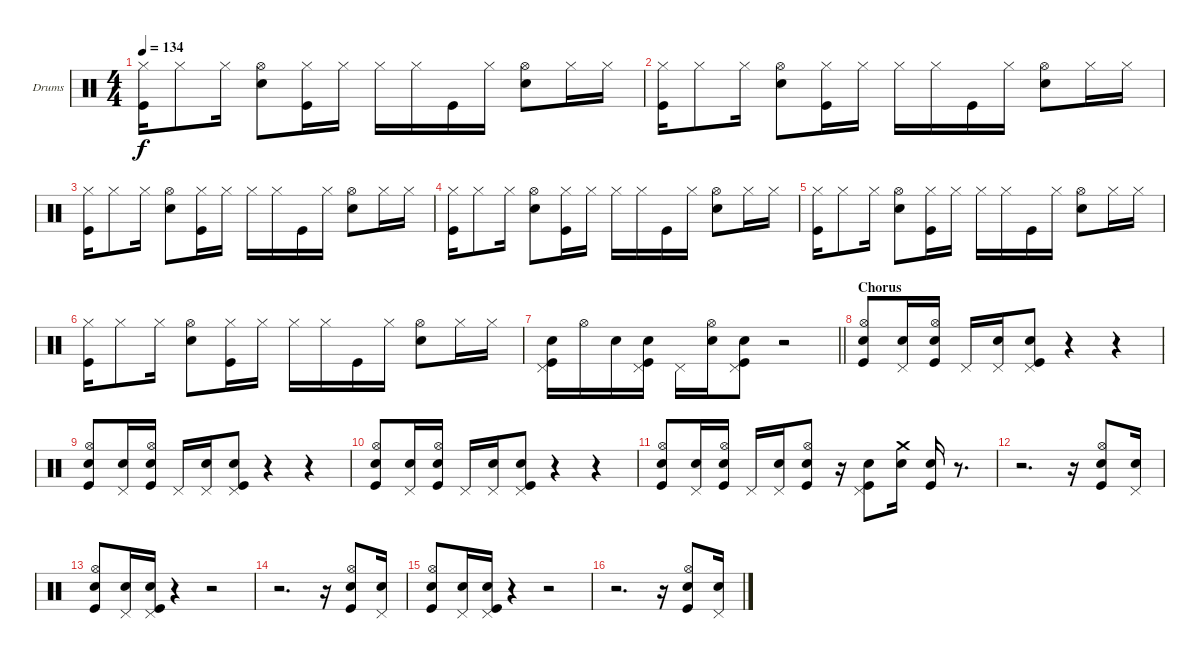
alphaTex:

\bracketExtendMode groupsimilarinstruments
\firstSystemTrackNameOrientation horizontal
\otherSystemsTrackNameOrientation horizontal
\track ("Drumkit" "Drums") {instrument percussion}
\staff {score}
\articulation defaults
\ts (4 4)
\tempo 134
\clef neutral
\ks c
("Hi-Hat (closed)" "Kick (hit)").16{dy f} "Hi-Hat (closed)".8 "Hi-Hat (closed)".16 ("Hi-Hat (open)" "Snare (hit) 2").8 ("Hi-Hat (closed)" "Kick (hit)").16 "Hi-Hat (closed)".16 "Hi-Hat (closed)".16 "Hi-Hat (closed)".16 "Kick (hit)".16 "Hi-Hat (closed)".16 ("Hi-Hat (open)" "Snare (hit) 2").8 "Hi-Hat (closed)".16 "Hi-Hat (closed)".16 |
("Hi-Hat (closed)" "Kick (hit)").16 "Hi-Hat (closed)".8 "Hi-Hat (closed)".16 ("Hi-Hat (open)" "Snare (hit) 2").8 ("Hi-Hat (closed)" "Kick (hit)").16 "Hi-Hat (closed)".16 "Hi-Hat (closed)".16 "Hi-Hat (closed)".16 "Kick (hit)".16 "Hi-Hat (closed)".16 ("Hi-Hat (open)" "Snare (hit) 2").8 "Hi-Hat (closed)".16 "Hi-Hat (closed)".16 |
("Hi-Hat (closed)" "Kick (hit)").16 "Hi-Hat (closed)".8 "Hi-Hat (closed)".16 ("Hi-Hat (open)" "Snare (hit) 2").8 ("Hi-Hat (closed)" "Kick (hit)").16 "Hi-Hat (closed)".16 "Hi-Hat (closed)".16 "Hi-Hat (closed)".16 "Kick (hit)".16 "Hi-Hat (closed)".16 ("Hi-Hat (open)" "Snare (hit) 2").8 "Hi-Hat (closed)".16 "Hi-Hat (closed)".16 |
("Hi-Hat (closed)" "Kick (hit)").16 "Hi-Hat (closed)".8 "Hi-Hat (closed)".16 ("Hi-Hat (open)" "Snare (hit) 2").8 ("Hi-Hat (closed)" "Kick (hit)").16 "Hi-Hat (closed)".16 "Hi-Hat (closed)".16 "Hi-Hat (closed)".16 "Kick (hit)".16 "Hi-Hat (closed)".16 ("Hi-Hat (open)" "Snare (hit) 2").8 "Hi-Hat (closed)".16 "Hi-Hat (closed)".16 |
("Hi-Hat (closed)" "Kick (hit)").16 "Hi-Hat (closed)".8 "Hi-Hat (closed)".16 ("Hi-Hat (open)" "Snare (hit) 2").8 ("Hi-Hat (closed)" "Kick (hit)").16 "Hi-Hat (closed)".16 "Hi-Hat (closed)".16 "Hi-Hat (closed)".16 "Kick (hit)".16 "Hi-Hat (closed)".16 ("Hi-Hat (open)" "Snare (hit) 2").8 "Hi-Hat (closed)".16 "Hi-Hat (closed)".16 |
("Hi-Hat (closed)" "Kick (hit)").16 "Hi-Hat (closed)".8 "Hi-Hat (closed)".16 ("Hi-Hat (open)" "Snare (hit) 2").8 ("Hi-Hat (closed)" "Kick (hit)").16 "Hi-Hat (closed)".16 "Hi-Hat (closed)".16 "Hi-Hat (closed)".16 "Kick (hit)".16 "Hi-Hat (closed)".16 ("Hi-Hat (open)" "Snare (hit) 2").8 "Hi-Hat (closed)".16 "Hi-Hat (closed)".16 |
\barLineRight lightlight
("Pedal Hi-Hat (hit)" "Snare (hit) 2" "Kick (hit)").16 "Hi-Hat (open)".16 "Snare (hit) 2".16 ("Pedal Hi-Hat (hit)" "Snare (hit) 2" "Kick (hit)").16 "Pedal Hi-Hat (hit)".16 ("Hi-Hat (open)" "Snare (hit) 2").16 ("Pedal Hi-Hat (hit)" "Snare (hit) 2" "Kick (hit)").8 r.2 |
\section ("" "Chorus")
("Hi-Hat (open)" "Snare (hit) 2" "Kick (hit)").8 ("Pedal Hi-Hat (hit)" "Snare (hit) 2").16 ("Hi-Hat (open)" "Snare (hit) 2" "Kick (hit)").16 "Pedal Hi-Hat (hit)".16 ("Pedal Hi-Hat (hit)" "Snare (hit) 2").16 ("Pedal Hi-Hat (hit)" "Snare (hit) 2" "Kick (hit)").8 r.4 r.4 |
("Hi-Hat (open)" "Snare (hit) 2" "Kick (hit)").8 ("Pedal Hi-Hat (hit)" "Snare (hit) 2").16 ("Hi-Hat (open)" "Snare (hit) 2" "Kick (hit)").16 "Pedal Hi-Hat (hit)".16 ("Pedal Hi-Hat (hit)" "Snare (hit) 2").16 ("Pedal Hi-Hat (hit)" "Snare (hit) 2" "Kick (hit)").8 r.4 r.4 |
("Hi-Hat (open)" "Snare (hit) 2" "Kick (hit)").8 ("Pedal Hi-Hat (hit)" "Snare (hit) 2").16 ("Hi-Hat (open)" "Snare (hit) 2" "Kick (hit)").16 "Pedal Hi-Hat (hit)".16 ("Pedal Hi-Hat (hit)" "Snare (hit) 2").16 ("Pedal Hi-Hat (hit)" "Snare (hit) 2" "Kick (hit)").8 r.4 r.4 |
("Hi-Hat (open)" "Snare (hit) 2" "Kick (hit)").8 ("Pedal Hi-Hat (hit)" "Snare (hit) 2").16 ("Hi-Hat (open)" "Snare (hit) 2" "Kick (hit)").16 "Pedal Hi-Hat (hit)".16 ("Pedal Hi-Hat (hit)" "Snare (hit) 2").16 ("Hi-Hat (open)" "Snare (hit) 2" "Kick (hit)").8 r.16 ("Pedal Hi-Hat (hit)" "Snare (hit) 2" "Kick (hit)").8 ("Crash medium (hit)" "Snare (hit) 2").16 ("Snare (hit) 2" "Kick (hit)").16 r.8{d} |
r.2{d} r.16 ("Hi-Hat (open)" "Snare (hit) 2" "Kick (hit)").8 ("Pedal Hi-Hat (hit)" "Snare (hit) 2").16 |
("Hi-Hat (open)" "Snare (hit) 2" "Kick (hit)").8 ("Pedal Hi-Hat (hit)" "Snare (hit) 2").16 ("Pedal Hi-Hat (hit)" "Snare (hit) 2" "Kick (hit)").16 r.4 r.2 |
r.2{d} r.16 ("Hi-Hat (open)" "Snare (hit) 2" "Kick (hit)").8 ("Pedal Hi-Hat (hit)" "Snare (hit) 2").16 |
("Hi-Hat (open)" "Snare (hit) 2" "Kick (hit)").8 ("Pedal Hi-Hat (hit)" "Snare (hit) 2").16 ("Pedal Hi-Hat (hit)" "Snare (hit) 2" "Kick (hit)").16 r.4 r.2 |
r.2{d} r.16 ("Hi-Hat (open)" "Snare (hit) 2" "Kick (hit)").8 ("Pedal Hi-Hat (hit)" "Snare (hit) 2").16
